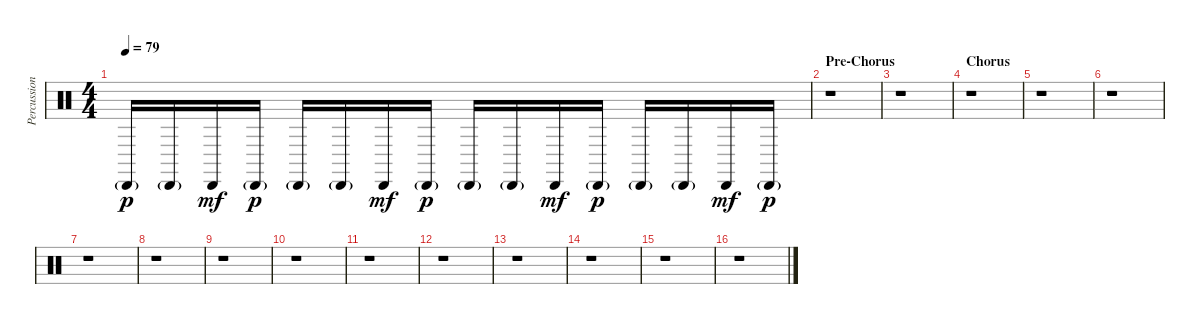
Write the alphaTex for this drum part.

\track ("Percussion Overdubs" "Percussion") {instrument percussion}
\staff {score}
\articulation defaults
\ts (4 4)
\tempo 79
\clef neutral
\ks c "Cabasa (hit)"{g}.16{dy p} "Cabasa (hit)"{g}.16 "Cabasa (hit)".16{dy mf} "Cabasa (hit)"{g}.16{dy p} "Cabasa (hit)"{g}.16 "Cabasa (hit)"{g}.16 "Cabasa (hit)".16{dy mf} "Cabasa (hit)"{g}.16{dy p} "Cabasa (hit)"{g}.16 "Cabasa (hit)"{g}.16 "Cabasa (hit)".16{dy mf} "Cabasa (hit)"{g}.16{dy p} "Cabasa (hit)"{g}.16 "Cabasa (hit)"{g}.16 "Cabasa (hit)".16{dy mf} "Cabasa (hit)"{g}.16{dy p}
|
\section ("" "Pre-Chorus")
r.1 |
r.1 |
\section ("" "Chorus")
r.1 |
r.1 |
r.1 |
r.1 |
r.1 |
r.1 |
r.1 |
r.1 |
r.1 |
r.1 |
r.1 |
r.1 |
r.1
